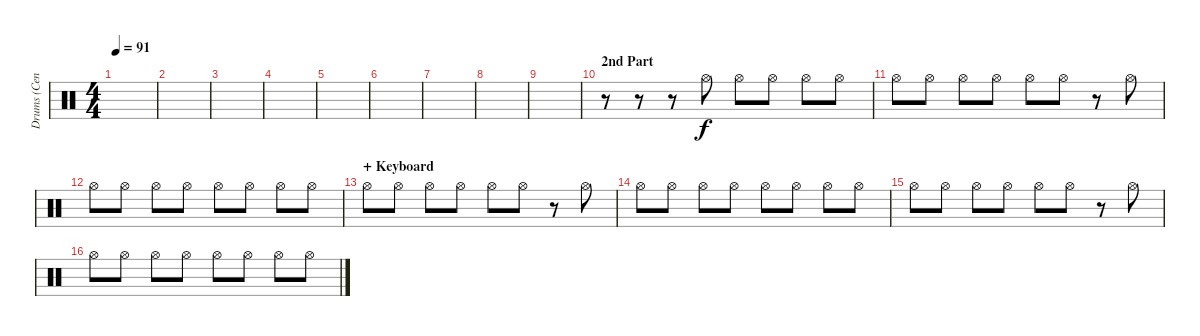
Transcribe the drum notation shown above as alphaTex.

\track ("Drums (Cenk)" "Drums (Cen") {instrument percussion}
\staff {score}
\articulation defaults
\ts (4 4)
\tempo 91
\clef neutral
\ks c
|
|
|
|
|
|
|
|
|
\section ("" "2nd Part")
r.8 r.8 r.8 "Hi-Hat (open)".8 "Hi-Hat (open)".8 "Hi-Hat (open)".8 "Hi-Hat (open)".8 "Hi-Hat (open)".8 |
"Hi-Hat (open)".8 "Hi-Hat (open)".8 "Hi-Hat (open)".8 "Hi-Hat (open)".8 "Hi-Hat (open)".8 "Hi-Hat (open)".8 r.8 "Hi-Hat (open)".8 |
"Hi-Hat (open)".8 "Hi-Hat (open)".8 "Hi-Hat (open)".8 "Hi-Hat (open)".8 "Hi-Hat (open)".8 "Hi-Hat (open)".8 "Hi-Hat (open)".8 "Hi-Hat (open)".8 |
\section ("" "+ Keyboard")
"Hi-Hat (open)".8 "Hi-Hat (open)".8 "Hi-Hat (open)".8 "Hi-Hat (open)".8 "Hi-Hat (open)".8 "Hi-Hat (open)".8 r.8 "Hi-Hat (open)".8 |
"Hi-Hat (open)".8 "Hi-Hat (open)".8 "Hi-Hat (open)".8 "Hi-Hat (open)".8 "Hi-Hat (open)".8 "Hi-Hat (open)".8 "Hi-Hat (open)".8 "Hi-Hat (open)".8 |
"Hi-Hat (open)".8 "Hi-Hat (open)".8 "Hi-Hat (open)".8 "Hi-Hat (open)".8 "Hi-Hat (open)".8 "Hi-Hat (open)".8 r.8 "Hi-Hat (open)".8 |
"Hi-Hat (open)".8 "Hi-Hat (open)".8 "Hi-Hat (open)".8 "Hi-Hat (open)".8 "Hi-Hat (open)".8 "Hi-Hat (open)".8 "Hi-Hat (open)".8 "Hi-Hat (open)".8
